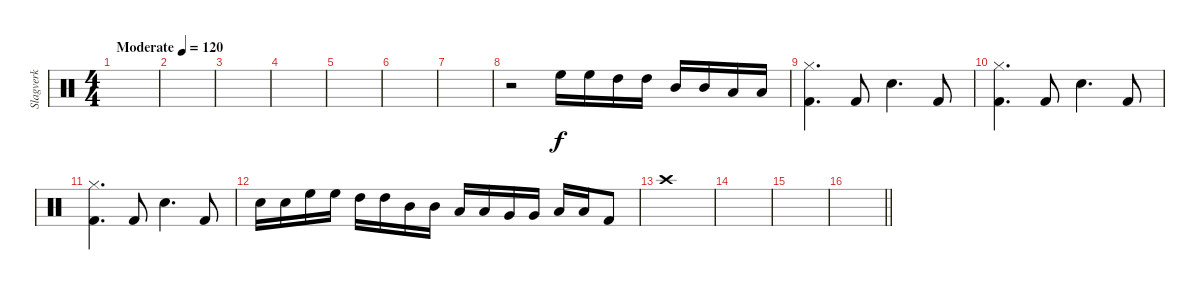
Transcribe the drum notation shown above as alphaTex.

\track ("Slagverk" "Slagverk") {instrument percussion}
\staff {score}
\articulation defaults
\ts (4 4)
\tempo (120 "Moderate")
\clef neutral
\ks c
|
|
|
|
|
|
|
r.2 "High Floor Tom (hit)".16 "High Floor Tom (hit)".16 "High Tom (hit)".16 "High Tom (hit)".16 "Mid Tom (hit)".16 "Mid Tom (hit)".16 "Low Tom (hit)".16 "Low Tom (hit)".16 |
("Kick (hit) 2" "Hi-Hat (closed)").4{d} "Kick (hit) 2".8 "Snare (hit) 2".4{d} "Kick (hit) 2".8 |
("Kick (hit) 2" "Hi-Hat (closed)").4{d} "Kick (hit) 2".8 "Snare (hit) 2".4{d} "Kick (hit) 2".8 |
("Kick (hit) 2" "Hi-Hat (closed)").4{d} "Kick (hit) 2".8 "Snare (hit) 2".4{d} "Kick (hit) 2".8 |
"Snare (hit) 2".16 "Snare (hit) 2".16 "High Floor Tom (hit)".16 "High Floor Tom (hit)".16 "High Tom (hit)".16 "High Tom (hit)".16 "Mid Tom (hit)".16 "Mid Tom (hit)".16 "Low Tom (hit)".16 "Low Tom (hit)".16 "Very Low Tom (hit)".16 "Very Low Tom (hit)".16 "Low Floor Tom (hit)".16 "Low Floor Tom (hit)".16 "Kick (hit) 2".8 |
"Crash high (hit)".1 |
|
|
\barLineRight lightlight
